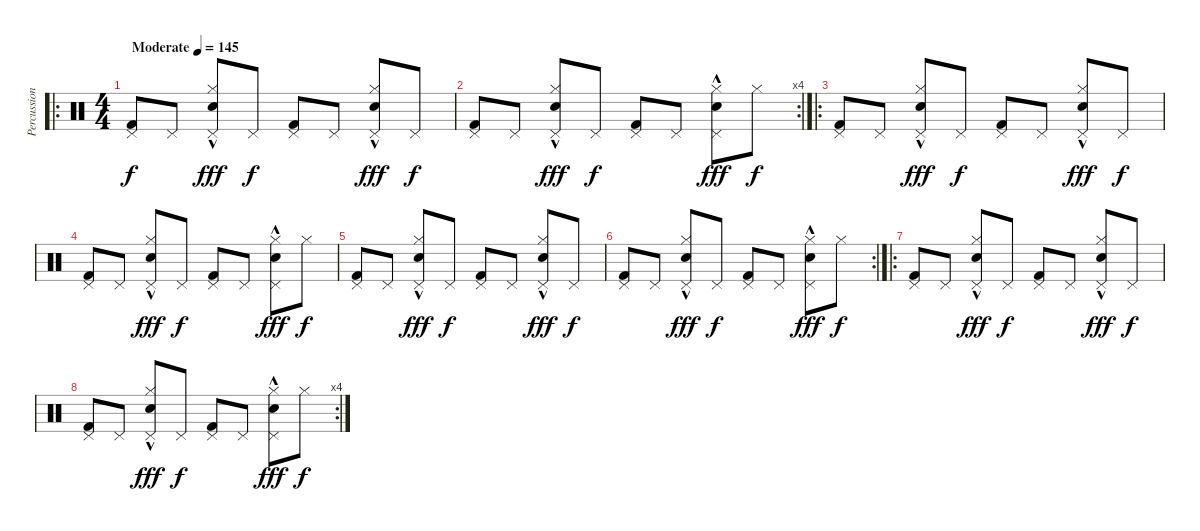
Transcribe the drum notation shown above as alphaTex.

\track ("Percussion" "Percussion") {instrument percussion}
\staff {score}
\articulation defaults
\ro
\ts (4 4)
\tempo (145 "Moderate")
\clef neutral
\ks c
("Pedal Hi-Hat (hit)" "Kick (hit) 2").8{dy f} "Pedal Hi-Hat (hit)".8 ("Hi-Hat (closed)"{hac} "Pedal Hi-Hat (hit)"{hac} "Snare (hit) 2").8{dy fff} "Pedal Hi-Hat (hit)".8{dy f} ("Pedal Hi-Hat (hit)" "Kick (hit) 2").8 "Pedal Hi-Hat (hit)".8 ("Hi-Hat (closed)"{hac} "Pedal Hi-Hat (hit)"{hac} "Snare (hit) 2").8{dy fff} "Pedal Hi-Hat (hit)".8{dy f} |
\rc 4
("Pedal Hi-Hat (hit)" "Kick (hit) 2").8 "Pedal Hi-Hat (hit)".8 ("Pedal Hi-Hat (hit)"{hac} "Hi-Hat (closed)"{hac} "Snare (hit) 2").8{dy fff} "Pedal Hi-Hat (hit)".8{dy f} ("Pedal Hi-Hat (hit)" "Kick (hit) 2").8 "Pedal Hi-Hat (hit)".8 ("Hi-Hat (closed)"{hac} "Pedal Hi-Hat (hit)"{hac} "Snare (hit) 2").8{dy fff} "Hi-Hat (closed)".8{dy f} |
\ro
("Pedal Hi-Hat (hit)" "Kick (hit) 2").8 "Pedal Hi-Hat (hit)".8 ("Hi-Hat (closed)"{hac} "Pedal Hi-Hat (hit)"{hac} "Snare (hit) 2").8{dy fff} "Pedal Hi-Hat (hit)".8{dy f} ("Pedal Hi-Hat (hit)" "Kick (hit) 2").8 "Pedal Hi-Hat (hit)".8 ("Hi-Hat (closed)"{hac} "Pedal Hi-Hat (hit)"{hac} "Snare (hit) 2").8{dy fff} "Pedal Hi-Hat (hit)".8{dy f} |
("Pedal Hi-Hat (hit)" "Kick (hit) 2").8 "Pedal Hi-Hat (hit)".8 ("Pedal Hi-Hat (hit)"{hac} "Hi-Hat (closed)"{hac} "Snare (hit) 2").8{dy fff} "Pedal Hi-Hat (hit)".8{dy f} ("Pedal Hi-Hat (hit)" "Kick (hit) 2").8 "Pedal Hi-Hat (hit)".8 ("Hi-Hat (closed)"{hac} "Pedal Hi-Hat (hit)"{hac} "Snare (hit) 2").8{dy fff} "Hi-Hat (closed)".8{dy f} |
("Pedal Hi-Hat (hit)" "Kick (hit) 2").8 "Pedal Hi-Hat (hit)".8 ("Hi-Hat (closed)"{hac} "Pedal Hi-Hat (hit)"{hac} "Snare (hit) 2").8{dy fff} "Pedal Hi-Hat (hit)".8{dy f} ("Pedal Hi-Hat (hit)" "Kick (hit) 2").8 "Pedal Hi-Hat (hit)".8 ("Hi-Hat (closed)"{hac} "Pedal Hi-Hat (hit)"{hac} "Snare (hit) 2").8{dy fff} "Pedal Hi-Hat (hit)".8{dy f} |
\rc 2
("Pedal Hi-Hat (hit)" "Kick (hit) 2").8 "Pedal Hi-Hat (hit)".8 ("Pedal Hi-Hat (hit)"{hac} "Hi-Hat (closed)"{hac} "Snare (hit) 2").8{dy fff} "Pedal Hi-Hat (hit)".8{dy f} ("Pedal Hi-Hat (hit)" "Kick (hit) 2").8 "Pedal Hi-Hat (hit)".8 ("Hi-Hat (closed)"{hac} "Pedal Hi-Hat (hit)"{hac} "Snare (hit) 2").8{dy fff} "Hi-Hat (closed)".8{dy f} |
\ro
("Pedal Hi-Hat (hit)" "Kick (hit) 2").8 "Pedal Hi-Hat (hit)".8 ("Hi-Hat (closed)"{hac} "Pedal Hi-Hat (hit)"{hac} "Snare (hit) 2").8{dy fff} "Pedal Hi-Hat (hit)".8{dy f} ("Pedal Hi-Hat (hit)" "Kick (hit) 2").8 "Pedal Hi-Hat (hit)".8 ("Hi-Hat (closed)"{hac} "Pedal Hi-Hat (hit)"{hac} "Snare (hit) 2").8{dy fff} "Pedal Hi-Hat (hit)".8{dy f} |
\rc 4
("Pedal Hi-Hat (hit)" "Kick (hit) 2").8 "Pedal Hi-Hat (hit)".8 ("Pedal Hi-Hat (hit)"{hac} "Hi-Hat (closed)"{hac} "Snare (hit) 2").8{dy fff} "Pedal Hi-Hat (hit)".8{dy f} ("Pedal Hi-Hat (hit)" "Kick (hit) 2").8 "Pedal Hi-Hat (hit)".8 ("Hi-Hat (closed)"{hac} "Pedal Hi-Hat (hit)"{hac} "Snare (hit) 2").8{dy fff} "Hi-Hat (closed)".8{dy f}
